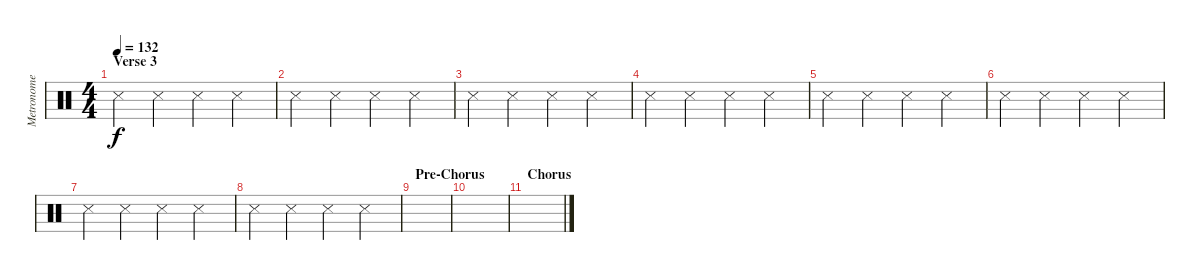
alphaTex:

\track ("Metronome" "Metronome") {instrument percussion}
\staff {score}
\articulation defaults
\ts (4 4)
\section ("" "Verse 3")
\tempo 132
\clef neutral
\ks c "Metronome (hit)".4{dy f} "Metronome (hit)".4 "Metronome (hit)".4 "Metronome (hit)".4
|
"Metronome (hit)".4 "Metronome (hit)".4 "Metronome (hit)".4 "Metronome (hit)".4 |
"Metronome (hit)".4 "Metronome (hit)".4 "Metronome (hit)".4 "Metronome (hit)".4 |
"Metronome (hit)".4 "Metronome (hit)".4 "Metronome (hit)".4 "Metronome (hit)".4 |
"Metronome (hit)".4 "Metronome (hit)".4 "Metronome (hit)".4 "Metronome (hit)".4 |
"Metronome (hit)".4 "Metronome (hit)".4 "Metronome (hit)".4 "Metronome (hit)".4 |
"Metronome (hit)".4 "Metronome (hit)".4 "Metronome (hit)".4 "Metronome (hit)".4 |
"Metronome (hit)".4 "Metronome (hit)".4 "Metronome (hit)".4 "Metronome (hit)".4 |
\section ("" "Pre-Chorus")
|
|
\section ("" "Chorus")
